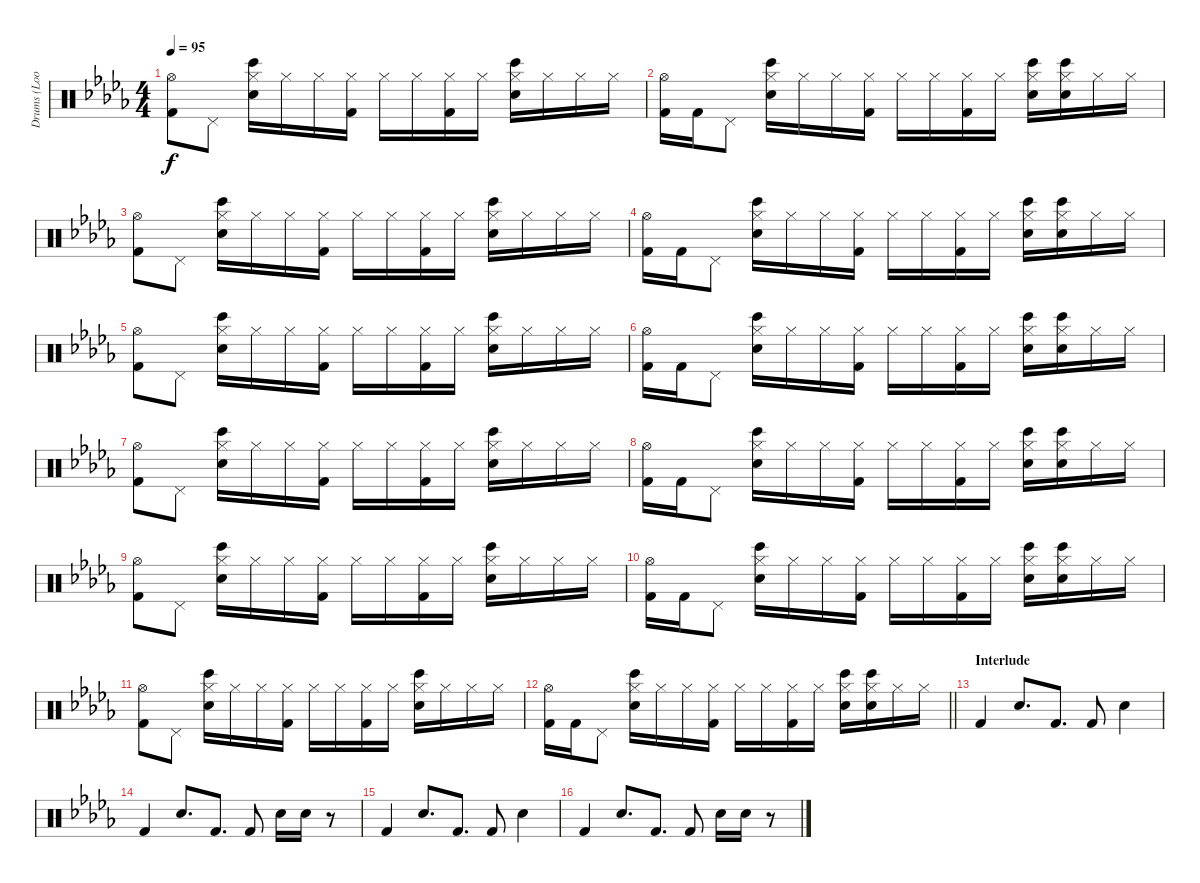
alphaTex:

\track ("Drums (Loops)" "Drums (Loo") {instrument percussion}
\staff {score}
\articulation defaults
\ts (4 4)
\tempo 95
\clef neutral
\ks db
("Hi-Hat (open)" "Kick (hit) 2").8{dy f} "Pedal Hi-Hat (hit)".8 ("Hi-Hat (closed)" "Snare (hit) 2" "Bongo High (hit)").16 "Hi-Hat (closed)".16 "Hi-Hat (closed)".16 ("Hi-Hat (closed)" "Kick (hit) 2").16 "Hi-Hat (closed)".16 "Hi-Hat (closed)".16 ("Hi-Hat (closed)" "Kick (hit) 2").16 "Hi-Hat (closed)".16 ("Hi-Hat (closed)" "Snare (hit) 2" "Bongo High (hit)").16 "Hi-Hat (closed)".16 "Hi-Hat (closed)".16 "Hi-Hat (closed)".16 |
("Hi-Hat (open)" "Kick (hit) 2").16 "Kick (hit) 2".16 "Pedal Hi-Hat (hit)".8 ("Hi-Hat (closed)" "Snare (hit) 2" "Bongo High (hit)").16 "Hi-Hat (closed)".16 "Hi-Hat (closed)".16 ("Hi-Hat (closed)" "Kick (hit) 2").16 "Hi-Hat (closed)".16 "Hi-Hat (closed)".16 ("Hi-Hat (closed)" "Kick (hit) 2").16 "Hi-Hat (closed)".16 ("Hi-Hat (closed)" "Snare (hit) 2" "Bongo High (hit)").16 ("Hi-Hat (closed)" "Snare (hit) 2" "Bongo High (hit)").16 "Hi-Hat (closed)".16 "Hi-Hat (closed)".16 |
("Hi-Hat (open)" "Kick (hit) 2").8 "Pedal Hi-Hat (hit)".8 ("Hi-Hat (closed)" "Snare (hit) 2" "Bongo High (hit)").16 "Hi-Hat (closed)".16 "Hi-Hat (closed)".16 ("Hi-Hat (closed)" "Kick (hit) 2").16 "Hi-Hat (closed)".16 "Hi-Hat (closed)".16 ("Hi-Hat (closed)" "Kick (hit) 2").16 "Hi-Hat (closed)".16 ("Hi-Hat (closed)" "Snare (hit) 2" "Bongo High (hit)").16 "Hi-Hat (closed)".16 "Hi-Hat (closed)".16 "Hi-Hat (closed)".16 |
("Hi-Hat (open)" "Kick (hit) 2").16 "Kick (hit) 2".16 "Pedal Hi-Hat (hit)".8 ("Hi-Hat (closed)" "Snare (hit) 2" "Bongo High (hit)").16 "Hi-Hat (closed)".16 "Hi-Hat (closed)".16 ("Hi-Hat (closed)" "Kick (hit) 2").16 "Hi-Hat (closed)".16 "Hi-Hat (closed)".16 ("Hi-Hat (closed)" "Kick (hit) 2").16 "Hi-Hat (closed)".16 ("Hi-Hat (closed)" "Snare (hit) 2" "Bongo High (hit)").16 ("Hi-Hat (closed)" "Snare (hit) 2" "Bongo High (hit)").16 "Hi-Hat (closed)".16 "Hi-Hat (closed)".16 |
("Hi-Hat (open)" "Kick (hit) 2").8 "Pedal Hi-Hat (hit)".8 ("Hi-Hat (closed)" "Snare (hit) 2" "Bongo High (hit)").16 "Hi-Hat (closed)".16 "Hi-Hat (closed)".16 ("Hi-Hat (closed)" "Kick (hit) 2").16 "Hi-Hat (closed)".16 "Hi-Hat (closed)".16 ("Hi-Hat (closed)" "Kick (hit) 2").16 "Hi-Hat (closed)".16 ("Hi-Hat (closed)" "Snare (hit) 2" "Bongo High (hit)").16 "Hi-Hat (closed)".16 "Hi-Hat (closed)".16 "Hi-Hat (closed)".16 |
("Hi-Hat (open)" "Kick (hit) 2").16 "Kick (hit) 2".16 "Pedal Hi-Hat (hit)".8 ("Hi-Hat (closed)" "Snare (hit) 2" "Bongo High (hit)").16 "Hi-Hat (closed)".16 "Hi-Hat (closed)".16 ("Hi-Hat (closed)" "Kick (hit) 2").16 "Hi-Hat (closed)".16 "Hi-Hat (closed)".16 ("Hi-Hat (closed)" "Kick (hit) 2").16 "Hi-Hat (closed)".16 ("Hi-Hat (closed)" "Snare (hit) 2" "Bongo High (hit)").16 ("Hi-Hat (closed)" "Snare (hit) 2" "Bongo High (hit)").16 "Hi-Hat (closed)".16 "Hi-Hat (closed)".16 |
("Hi-Hat (open)" "Kick (hit) 2").8 "Pedal Hi-Hat (hit)".8 ("Hi-Hat (closed)" "Snare (hit) 2" "Bongo High (hit)").16 "Hi-Hat (closed)".16 "Hi-Hat (closed)".16 ("Hi-Hat (closed)" "Kick (hit) 2").16 "Hi-Hat (closed)".16 "Hi-Hat (closed)".16 ("Hi-Hat (closed)" "Kick (hit) 2").16 "Hi-Hat (closed)".16 ("Hi-Hat (closed)" "Snare (hit) 2" "Bongo High (hit)").16 "Hi-Hat (closed)".16 "Hi-Hat (closed)".16 "Hi-Hat (closed)".16 |
("Hi-Hat (open)" "Kick (hit) 2").16 "Kick (hit) 2".16 "Pedal Hi-Hat (hit)".8 ("Hi-Hat (closed)" "Snare (hit) 2" "Bongo High (hit)").16 "Hi-Hat (closed)".16 "Hi-Hat (closed)".16 ("Hi-Hat (closed)" "Kick (hit) 2").16 "Hi-Hat (closed)".16 "Hi-Hat (closed)".16 ("Hi-Hat (closed)" "Kick (hit) 2").16 "Hi-Hat (closed)".16 ("Hi-Hat (closed)" "Snare (hit) 2" "Bongo High (hit)").16 ("Hi-Hat (closed)" "Snare (hit) 2" "Bongo High (hit)").16 "Hi-Hat (closed)".16 "Hi-Hat (closed)".16 |
("Hi-Hat (open)" "Kick (hit) 2").8 "Pedal Hi-Hat (hit)".8 ("Hi-Hat (closed)" "Snare (hit) 2" "Bongo High (hit)").16 "Hi-Hat (closed)".16 "Hi-Hat (closed)".16 ("Hi-Hat (closed)" "Kick (hit) 2").16 "Hi-Hat (closed)".16 "Hi-Hat (closed)".16 ("Hi-Hat (closed)" "Kick (hit) 2").16 "Hi-Hat (closed)".16 ("Hi-Hat (closed)" "Snare (hit) 2" "Bongo High (hit)").16 "Hi-Hat (closed)".16 "Hi-Hat (closed)".16 "Hi-Hat (closed)".16 |
("Hi-Hat (open)" "Kick (hit) 2").16 "Kick (hit) 2".16 "Pedal Hi-Hat (hit)".8 ("Hi-Hat (closed)" "Snare (hit) 2" "Bongo High (hit)").16 "Hi-Hat (closed)".16 "Hi-Hat (closed)".16 ("Hi-Hat (closed)" "Kick (hit) 2").16 "Hi-Hat (closed)".16 "Hi-Hat (closed)".16 ("Hi-Hat (closed)" "Kick (hit) 2").16 "Hi-Hat (closed)".16 ("Hi-Hat (closed)" "Snare (hit) 2" "Bongo High (hit)").16 ("Hi-Hat (closed)" "Snare (hit) 2" "Bongo High (hit)").16 "Hi-Hat (closed)".16 "Hi-Hat (closed)".16 |
("Hi-Hat (open)" "Kick (hit) 2").8 "Pedal Hi-Hat (hit)".8 ("Hi-Hat (closed)" "Snare (hit) 2" "Bongo High (hit)").16 "Hi-Hat (closed)".16 "Hi-Hat (closed)".16 ("Hi-Hat (closed)" "Kick (hit) 2").16 "Hi-Hat (closed)".16 "Hi-Hat (closed)".16 ("Hi-Hat (closed)" "Kick (hit) 2").16 "Hi-Hat (closed)".16 ("Hi-Hat (closed)" "Snare (hit) 2" "Bongo High (hit)").16 "Hi-Hat (closed)".16 "Hi-Hat (closed)".16 "Hi-Hat (closed)".16 |
\barLineRight lightlight
("Hi-Hat (open)" "Kick (hit) 2").16 "Kick (hit) 2".16 "Pedal Hi-Hat (hit)".8 ("Hi-Hat (closed)" "Snare (hit) 2" "Bongo High (hit)").16 "Hi-Hat (closed)".16 "Hi-Hat (closed)".16 ("Hi-Hat (closed)" "Kick (hit) 2").16 "Hi-Hat (closed)".16 "Hi-Hat (closed)".16 ("Hi-Hat (closed)" "Kick (hit) 2").16 "Hi-Hat (closed)".16 ("Hi-Hat (closed)" "Snare (hit) 2" "Bongo High (hit)").16 ("Hi-Hat (closed)" "Snare (hit) 2" "Bongo High (hit)").16 "Hi-Hat (closed)".16 "Hi-Hat (closed)".16 |
\section ("" "Interlude")
"Kick (hit) 2".4 "Hand Clap (hit)".8{d} "Kick (hit) 2".8{d} "Kick (hit) 2".8 "Hand Clap (hit)".4 |
"Kick (hit) 2".4 "Hand Clap (hit)".8{d} "Kick (hit) 2".8{d} "Kick (hit) 2".8 "Hand Clap (hit)".16 "Hand Clap (hit)".16 r.8 |
"Kick (hit) 2".4 "Hand Clap (hit)".8{d} "Kick (hit) 2".8{d} "Kick (hit) 2".8 "Hand Clap (hit)".4 |
"Kick (hit) 2".4 "Hand Clap (hit)".8{d} "Kick (hit) 2".8{d} "Kick (hit) 2".8 "Hand Clap (hit)".16 "Hand Clap (hit)".16 r.8
